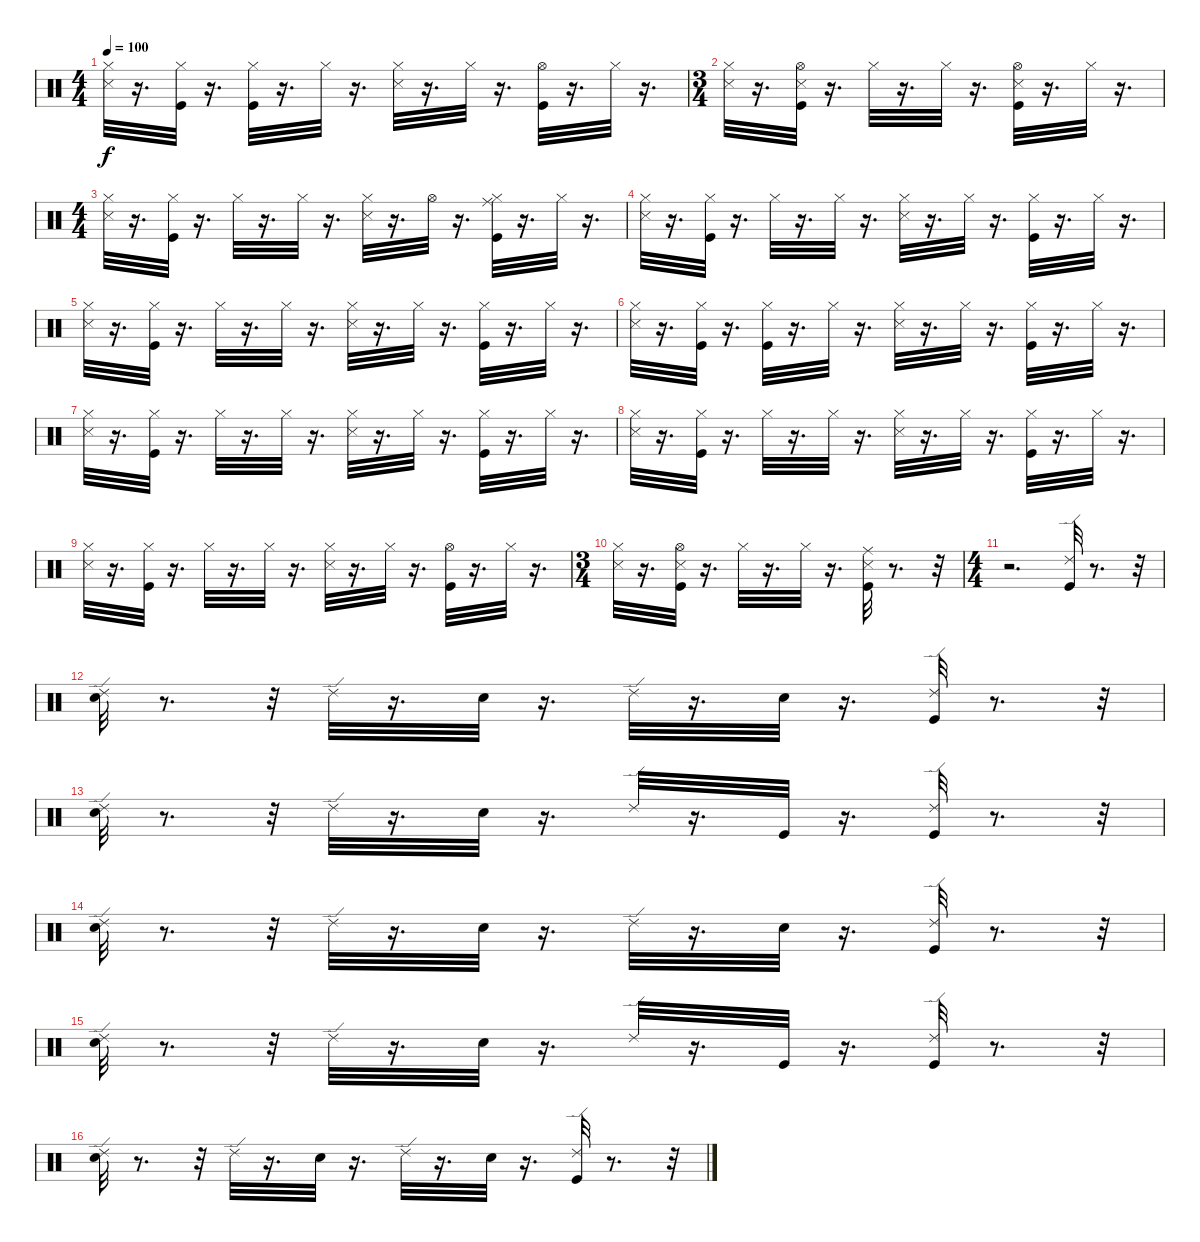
\track "" {instrument percussion}
\staff {score}
\articulation defaults
\ts (4 4)
\tempo 100
\clef neutral
\ks c
("Snare (side stick) 3" "Hi-Hat (closed)").32{dy f} r.16{d} ("Hi-Hat (closed)" "Kick (hit)").32 r.16{d} ("Hi-Hat (closed)" "Kick (hit)").32 r.16{d} "Hi-Hat (closed)".32 r.16{d} ("Snare (side stick) 3" "Hi-Hat (closed)").32 r.16{d} "Hi-Hat (closed)".32 r.16{d} ("Kick (hit)" "Hi-Hat (open)").32 r.16{d} "Hi-Hat (closed)".32 r.16{d} |
\ts (3 4)
("Snare (side stick) 3" "Hi-Hat (closed)").32 r.16{d} ("Snare (side stick) 3" "Kick (hit)" "Hi-Hat (open)").32 r.16{d} "Hi-Hat (closed)".32 r.16{d} "Hi-Hat (closed)".32 r.16{d} ("Snare (side stick) 3" "Kick (hit)" "Hi-Hat (open)").32 r.16{d} "Hi-Hat (closed)".32 r.16{d} |
\ts (4 4)
("Snare (side stick) 3" "Hi-Hat (closed)").32 r.16{d} ("Kick (hit)" "Hi-Hat (closed)").32 r.16{d} "Hi-Hat (closed)".32 r.16{d} "Hi-Hat (closed)".32 r.16{d} ("Snare (side stick) 3" "Hi-Hat (closed)").32 r.16{d} "Hi-Hat (open)".32 r.16{d} ("Ride (middle)" "Kick (hit)" "Hi-Hat (closed)").32 r.16{d} "Hi-Hat (closed)".32 r.16{d} |
("Snare (side stick) 3" "Hi-Hat (closed)").32 r.16{d} ("Hi-Hat (closed)" "Kick (hit)").32 r.16{d} "Hi-Hat (closed)".32 r.16{d} "Hi-Hat (closed)".32 r.16{d} ("Snare (side stick) 3" "Hi-Hat (closed)").32 r.16{d} "Hi-Hat (closed)".32 r.16{d} ("Kick (hit)" "Hi-Hat (closed)").32 r.16{d} "Hi-Hat (closed)".32 r.16{d} |
("Snare (side stick) 3" "Hi-Hat (closed)").32 r.16{d} ("Kick (hit)" "Hi-Hat (closed)").32 r.16{d} "Hi-Hat (closed)".32 r.16{d} "Hi-Hat (closed)".32 r.16{d} ("Snare (side stick) 3" "Hi-Hat (closed)").32 r.16{d} "Hi-Hat (closed)".32 r.16{d} ("Kick (hit)" "Hi-Hat (closed)").32 r.16{d} "Hi-Hat (closed)".32 r.16{d} |
("Snare (side stick) 3" "Hi-Hat (closed)").32 r.16{d} ("Hi-Hat (closed)" "Kick (hit)").32 r.16{d} ("Hi-Hat (closed)" "Kick (hit)").32 r.16{d} "Hi-Hat (closed)".32 r.16{d} ("Snare (side stick) 3" "Hi-Hat (closed)").32 r.16{d} "Hi-Hat (closed)".32 r.16{d} ("Kick (hit)" "Hi-Hat (closed)").32 r.16{d} "Hi-Hat (closed)".32 r.16{d} |
("Snare (side stick) 3" "Hi-Hat (closed)").32 r.16{d} ("Kick (hit)" "Hi-Hat (closed)").32 r.16{d} "Hi-Hat (closed)".32 r.16{d} "Hi-Hat (closed)".32 r.16{d} ("Snare (side stick) 3" "Hi-Hat (closed)").32 r.16{d} "Hi-Hat (closed)".32 r.16{d} ("Kick (hit)" "Hi-Hat (closed)").32 r.16{d} "Hi-Hat (closed)".32 r.16{d} |
("Snare (side stick) 3" "Hi-Hat (closed)").32 r.16{d} ("Hi-Hat (closed)" "Kick (hit)").32 r.16{d} "Hi-Hat (closed)".32 r.16{d} "Hi-Hat (closed)".32 r.16{d} ("Snare (side stick) 3" "Hi-Hat (closed)").32 r.16{d} "Hi-Hat (closed)".32 r.16{d} ("Kick (hit)" "Hi-Hat (closed)").32 r.16{d} "Hi-Hat (closed)".32 r.16{d} |
("Snare (side stick) 3" "Hi-Hat (closed)").32 r.16{d} ("Hi-Hat (closed)" "Kick (hit)").32 r.16{d} "Hi-Hat (closed)".32 r.16{d} "Hi-Hat (closed)".32 r.16{d} ("Snare (side stick) 3" "Hi-Hat (closed)").32 r.16{d} "Hi-Hat (closed)".32 r.16{d} ("Kick (hit)" "Hi-Hat (open)").32 r.16{d} "Hi-Hat (closed)".32 r.16{d} |
\ts (3 4)
("Snare (side stick) 3" "Hi-Hat (closed)").32 r.16{d} ("Snare (side stick) 3" "Kick (hit)" "Hi-Hat (open)").32 r.16{d} "Hi-Hat (closed)".32 r.16{d} "Hi-Hat (closed)".32 r.16{d} ("Snare (side stick) 3" "Kick (hit)" "Ride (middle)").32 r.8{d} r.32 |
\ts (4 4)
r.2{d} ("Ride (edge) 2" "Kick (hit)").32 r.8{d} r.32 |
("Snare (hit) 2" "Ride (edge) 2").32 r.8{d} r.32 "Ride (edge) 2".32 r.16{d} "Snare (hit) 2".32 r.16{d} "Ride (edge) 2".32 r.16{d} "Snare (hit) 2".32 r.16{d} ("Kick (hit)" "Ride (edge) 2").32 r.8{d} r.32 |
("Ride (edge) 2" "Snare (hit) 2").32 r.8{d} r.32 "Ride (edge) 2".32 r.16{d} "Snare (hit) 2".32 r.16{d} "Ride (edge) 2".32 r.16{d} "Kick (hit)".32 r.16{d} ("Kick (hit)" "Ride (edge) 2").32 r.8{d} r.32 |
("Ride (edge) 2" "Snare (hit) 2").32 r.8{d} r.32 "Ride (edge) 2".32 r.16{d} "Snare (hit) 2".32 r.16{d} "Ride (edge) 2".32 r.16{d} "Snare (hit) 2".32 r.16{d} ("Ride (edge) 2" "Kick (hit)").32 r.8{d} r.32 |
("Snare (hit) 2" "Ride (edge) 2").32 r.8{d} r.32 "Ride (edge) 2".32 r.16{d} "Snare (hit) 2".32 r.16{d} "Ride (edge) 2".32 r.16{d} "Kick (hit)".32 r.16{d} ("Ride (edge) 2" "Kick (hit)").32 r.8{d} r.32 |
("Snare (hit) 2" "Ride (edge) 2").32 r.8{d} r.32 "Ride (edge) 2".32 r.16{d} "Snare (hit) 2".32 r.16{d} "Ride (edge) 2".32 r.16{d} "Snare (hit) 2".32 r.16{d} ("Kick (hit)" "Ride (edge) 2").32 r.8{d} r.32
